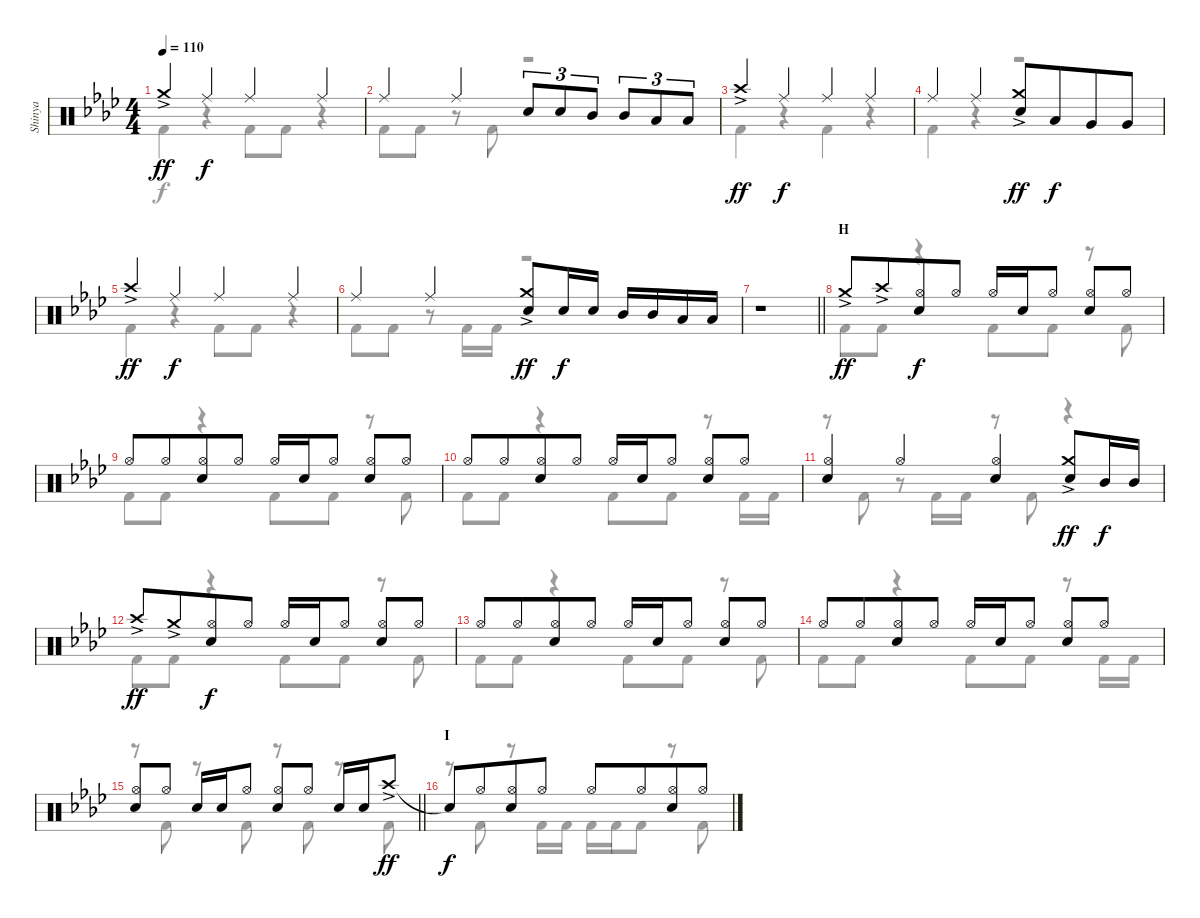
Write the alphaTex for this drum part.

\track ("Shinya" "Shinya") {instrument percussion}
\staff {score}
\articulation defaults
\voice
\ts (4 4)
\tempo 110
\clef neutral
\ks fminor "Crash medium (hit)"{ac}.4{dy ff} "Ride (middle)".4{dy f} "Ride (middle)".4 "Ride (middle)".4
|
"Ride (middle)".4 "Ride (middle)".4 "Snare (hit) 2".8{tu (3 2)} "Snare (hit) 2".8{tu (3 2)} "Mid Tom (hit)".8{tu (3 2)} "Mid Tom (hit)".8{tu (3 2)} "Low Tom (hit)".8{tu (3 2)} "Low Tom (hit)".8{tu (3 2)} |
"Crash high (hit)"{ac}.4{dy ff} "Ride (middle)".4{dy f} "Ride (middle)".4 "Ride (middle)".4 |
"Ride (middle)".4 "Ride (middle)".4 ("Crash medium (hit)"{ac} "Snare (hit) 2").8{dy ff} "Low Tom (hit)".8{dy f beam merge} "Very Low Tom (hit)".8 "Very Low Tom (hit)".8 |
"Crash high (hit)"{ac}.4{dy ff} "Ride (middle)".4{dy f} "Ride (middle)".4 "Ride (middle)".4 |
"Ride (middle)".4 "Ride (middle)".4 ("Crash medium (hit)"{ac} "Snare (hit) 2").8{dy ff} "Snare (hit) 2".16{dy f} "Snare (hit) 2".16 "Mid Tom (hit)".16 "Mid Tom (hit)".16 "Low Tom (hit)".16 "Low Tom (hit)".16 |
\barLineRight lightlight
r.1 |
\section ("" "H")
"Crash medium (hit)"{ac}.8{dy ff} "Crash high (hit)"{ac}.8{beam merge} ("Hi-Hat (open)" "Snare (hit) 2").8{dy f} "Hi-Hat (open)".8 "Hi-Hat (open)".16 "Snare (hit) 2".16 "Hi-Hat (open)".8 ("Hi-Hat (open)" "Snare (hit) 2").8 "Hi-Hat (open)".8 |
"Hi-Hat (open)".8 "Hi-Hat (open)".8{beam merge} ("Hi-Hat (open)" "Snare (hit) 2").8 "Hi-Hat (open)".8 "Hi-Hat (open)".16 "Snare (hit) 2".16 "Hi-Hat (open)".8 ("Hi-Hat (open)" "Snare (hit) 2").8 "Hi-Hat (open)".8 |
"Hi-Hat (open)".8 "Hi-Hat (open)".8{beam merge} ("Hi-Hat (open)" "Snare (hit) 2").8 "Hi-Hat (open)".8 "Hi-Hat (open)".16 "Snare (hit) 2".16 "Hi-Hat (open)".8 ("Hi-Hat (open)" "Snare (hit) 2").8 "Hi-Hat (open)".8 |
("Hi-Hat (open)" "Snare (hit) 2").4 "Hi-Hat (open)".4 ("Hi-Hat (open)" "Snare (hit) 2").4 ("Crash medium (hit)"{ac} "Snare (hit) 2").8{dy ff} "Mid Tom (hit)".16{dy f} "Mid Tom (hit)".16 |
"Crash high (hit)"{ac}.8{dy ff} "Crash medium (hit)"{ac}.8{beam merge} ("Hi-Hat (open)" "Snare (hit) 2").8{dy f} "Hi-Hat (open)".8 "Hi-Hat (open)".16 "Snare (hit) 2".16 "Hi-Hat (open)".8 ("Hi-Hat (open)" "Snare (hit) 2").8 "Hi-Hat (open)".8 |
"Hi-Hat (open)".8 "Hi-Hat (open)".8{beam merge} ("Hi-Hat (open)" "Snare (hit) 2").8 "Hi-Hat (open)".8 "Hi-Hat (open)".16 "Snare (hit) 2".16 "Hi-Hat (open)".8 ("Hi-Hat (open)" "Snare (hit) 2").8 "Hi-Hat (open)".8 |
"Hi-Hat (open)".8 "Hi-Hat (open)".8{beam merge} ("Hi-Hat (open)" "Snare (hit) 2").8 "Hi-Hat (open)".8 "Hi-Hat (open)".16 "Snare (hit) 2".16 "Hi-Hat (open)".8 ("Hi-Hat (open)" "Snare (hit) 2").8 "Hi-Hat (open)".8 |
\barLineRight lightlight
("Hi-Hat (open)" "Snare (hit) 2").8 "Hi-Hat (open)".8 "Snare (hit) 2".16 "Snare (hit) 2".16 "Hi-Hat (open)".8 ("Hi-Hat (open)" "Snare (hit) 2").8 "Hi-Hat (open)".8 "Snare (hit) 2".16 "Snare (hit) 2".16 "Crash high (hit)"{ac}.8{dy ff} |
\section ("" "I")
"Snare (hit)"{t}.8{dy f} "Hi-Hat (open)".8{beam merge} ("Hi-Hat (open)" "Snare (hit) 2").8 "Hi-Hat (open)".8 "Hi-Hat (open)".8 "Hi-Hat (open)".8{beam merge} ("Hi-Hat (open)" "Snare (hit) 2").8 "Hi-Hat (open)".8
\voice
\clef neutral
\ottava regular
\simile none
\ks fminor "Kick (hit) 2".4{dy f}
r.4 "Kick (hit) 2".8 "Kick (hit) 2".8 r.4 |
"Kick (hit) 2".8 "Kick (hit) 2".8 r.8 "Kick (hit) 2".8 r.2 |
"Kick (hit) 2".4 r.4 "Kick (hit) 2".4 r.4 |
"Kick (hit) 2".4 r.4 r.2 |
"Kick (hit) 2".4 r.4 "Kick (hit) 2".8 "Kick (hit) 2".8 r.4 |
"Kick (hit) 2".8 "Kick (hit) 2".8 r.8 "Kick (hit) 2".16 "Kick (hit) 2".16 r.2 |
\barLineRight lightlight
r.1 |
"Kick (hit) 2".8 "Kick (hit) 2".8 r.4 "Kick (hit) 2".8 "Kick (hit) 2".8 r.8 "Kick (hit) 2".8 |
"Kick (hit) 2".8 "Kick (hit) 2".8 r.4 "Kick (hit) 2".8 "Kick (hit) 2".8 r.8 "Kick (hit) 2".8 |
"Kick (hit) 2".8 "Kick (hit) 2".8 r.4 "Kick (hit) 2".8 "Kick (hit) 2".8 r.8 "Kick (hit) 2".16 "Kick (hit) 2".16 |
r.8 "Kick (hit) 2".8 r.8 "Kick (hit) 2".16 "Kick (hit) 2".16 r.8 "Kick (hit) 2".8 r.4 |
"Kick (hit) 2".8 "Kick (hit) 2".8 r.4 "Kick (hit) 2".8 "Kick (hit) 2".8 r.8 "Kick (hit) 2".8 |
"Kick (hit) 2".8 "Kick (hit) 2".8 r.4 "Kick (hit) 2".8 "Kick (hit) 2".8 r.8 "Kick (hit) 2".8 |
"Kick (hit) 2".8 "Kick (hit) 2".8 r.4 "Kick (hit) 2".8 "Kick (hit) 2".8 r.8 "Kick (hit) 2".16 "Kick (hit) 2".16 |
\barLineRight lightlight
r.8 "Kick (hit) 2".8 r.8 "Kick (hit) 2".8 r.8 "Kick (hit) 2".8 r.8 "Kick (hit) 2".8 |
r.8 "Kick (hit) 2".8 r.8 "Kick (hit) 2".16 "Kick (hit) 2".16 "Kick (hit) 2".16 "Kick (hit) 2".16 "Kick (hit) 2".8 r.8 "Kick (hit) 2".8
